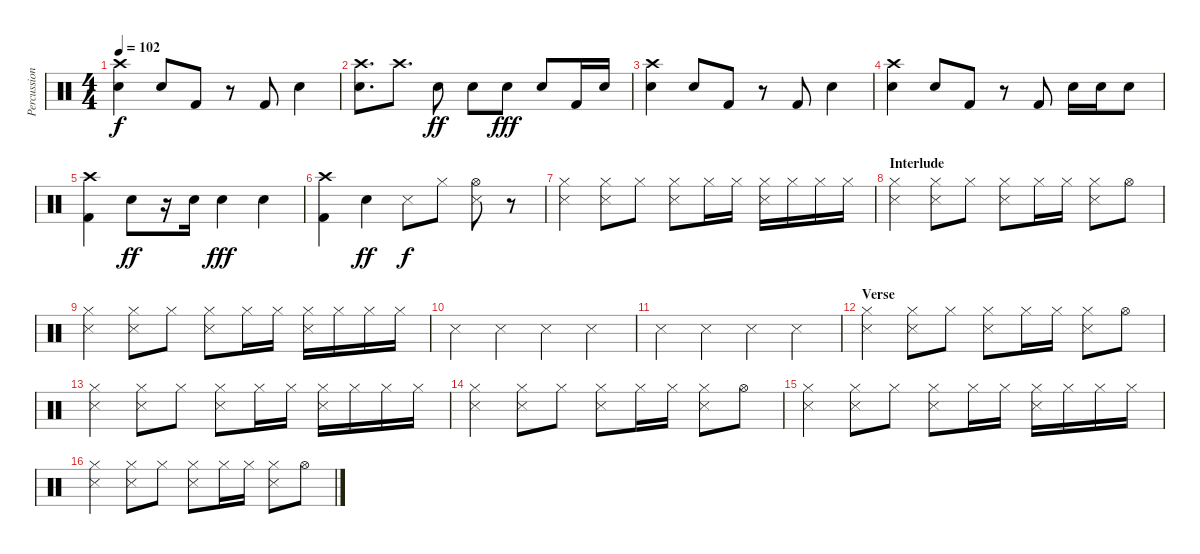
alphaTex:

\track ("Percussion" "Percussion") {instrument percussion}
\staff {score}
\articulation defaults
\ts (4 4)
\tempo 102
\clef neutral
\ks c
("Crash high (hit)" "Snare (hit) 2").4{dy f} "Snare (hit) 2".8 "Kick (hit) 2".8 r.8 "Kick (hit) 2".8 "Snare (hit) 2".4 |
("Crash high (hit)" "Snare (hit) 2").8{d} "Crash high (hit)".8{d} "Snare (hit) 2".8{dy ff} "Snare (hit) 2".8 "Snare (hit) 2".8{dy fff} "Snare (hit) 2".8 "Kick (hit) 2".16 "Snare (hit) 2".16 |
("Crash high (hit)" "Snare (hit) 2").4 "Snare (hit) 2".8 "Kick (hit) 2".8 r.8 "Kick (hit) 2".8 "Snare (hit) 2".4 |
("Crash high (hit)" "Snare (hit) 2").4 "Snare (hit) 2".8 "Kick (hit) 2".8 r.8 "Kick (hit) 2".8 "Snare (hit) 2".16 "Snare (hit) 2".16 "Snare (hit) 2".8 |
("Crash high (hit)" "Kick (hit) 2").4 "Snare (hit) 2".8{dy ff} r.16 "Snare (hit) 2".16 "Snare (hit) 2".4{dy fff} "Snare (hit) 2".4 |
("Crash high (hit)" "Kick (hit) 2").4 "Snare (hit) 2".4{dy ff} "Snare (side stick) 3".8{dy f} "Hi-Hat (closed)".8 ("Snare (side stick) 3" "Hi-Hat (open)").8 r.8 |
("Snare (side stick) 3" "Hi-Hat (closed)").4 ("Snare (side stick) 3" "Hi-Hat (closed)").8 "Hi-Hat (closed)".8 ("Snare (side stick) 3" "Hi-Hat (closed)").8 "Hi-Hat (closed)".16 "Hi-Hat (closed)".16 ("Snare (side stick) 3" "Hi-Hat (closed)").16 "Hi-Hat (closed)".16 "Hi-Hat (closed)".16 "Hi-Hat (closed)".16 |
\section ("" "Interlude")
("Snare (side stick) 3" "Hi-Hat (closed)").4 ("Snare (side stick) 3" "Hi-Hat (closed)").8 "Hi-Hat (closed)".8 ("Snare (side stick) 3" "Hi-Hat (closed)").8 "Hi-Hat (closed)".16 "Hi-Hat (closed)".16 ("Snare (side stick) 3" "Hi-Hat (closed)").8 "Hi-Hat (open)".8 |
("Snare (side stick) 3" "Hi-Hat (closed)").4 ("Snare (side stick) 3" "Hi-Hat (closed)").8 "Hi-Hat (closed)".8 ("Snare (side stick) 3" "Hi-Hat (closed)").8 "Hi-Hat (closed)".16 "Hi-Hat (closed)".16 ("Snare (side stick) 3" "Hi-Hat (closed)").16 "Hi-Hat (closed)".16 "Hi-Hat (closed)".16 "Hi-Hat (closed)".16 |
"Snare (side stick) 3".4 "Snare (side stick) 3".4 "Snare (side stick) 3".4 "Snare (side stick) 3".4 |
"Snare (side stick) 3".4 "Snare (side stick) 3".4 "Snare (side stick) 3".4 "Snare (side stick) 3".4 |
\section ("" "Verse")
("Snare (side stick) 3" "Hi-Hat (closed)").4 ("Snare (side stick) 3" "Hi-Hat (closed)").8 "Hi-Hat (closed)".8 ("Snare (side stick) 3" "Hi-Hat (closed)").8 "Hi-Hat (closed)".16 "Hi-Hat (closed)".16 ("Snare (side stick) 3" "Hi-Hat (closed)").8 "Hi-Hat (open)".8 |
("Snare (side stick) 3" "Hi-Hat (closed)").4 ("Snare (side stick) 3" "Hi-Hat (closed)").8 "Hi-Hat (closed)".8 ("Snare (side stick) 3" "Hi-Hat (closed)").8 "Hi-Hat (closed)".16 "Hi-Hat (closed)".16 ("Snare (side stick) 3" "Hi-Hat (closed)").16 "Hi-Hat (closed)".16 "Hi-Hat (closed)".16 "Hi-Hat (closed)".16 |
("Snare (side stick) 3" "Hi-Hat (closed)").4 ("Snare (side stick) 3" "Hi-Hat (closed)").8 "Hi-Hat (closed)".8 ("Snare (side stick) 3" "Hi-Hat (closed)").8 "Hi-Hat (closed)".16 "Hi-Hat (closed)".16 ("Snare (side stick) 3" "Hi-Hat (closed)").8 "Hi-Hat (open)".8 |
("Snare (side stick) 3" "Hi-Hat (closed)").4 ("Snare (side stick) 3" "Hi-Hat (closed)").8 "Hi-Hat (closed)".8 ("Snare (side stick) 3" "Hi-Hat (closed)").8 "Hi-Hat (closed)".16 "Hi-Hat (closed)".16 ("Snare (side stick) 3" "Hi-Hat (closed)").16 "Hi-Hat (closed)".16 "Hi-Hat (closed)".16 "Hi-Hat (closed)".16 |
("Snare (side stick) 3" "Hi-Hat (closed)").4 ("Snare (side stick) 3" "Hi-Hat (closed)").8 "Hi-Hat (closed)".8 ("Snare (side stick) 3" "Hi-Hat (closed)").8 "Hi-Hat (closed)".16 "Hi-Hat (closed)".16 ("Snare (side stick) 3" "Hi-Hat (closed)").8 "Hi-Hat (open)".8
